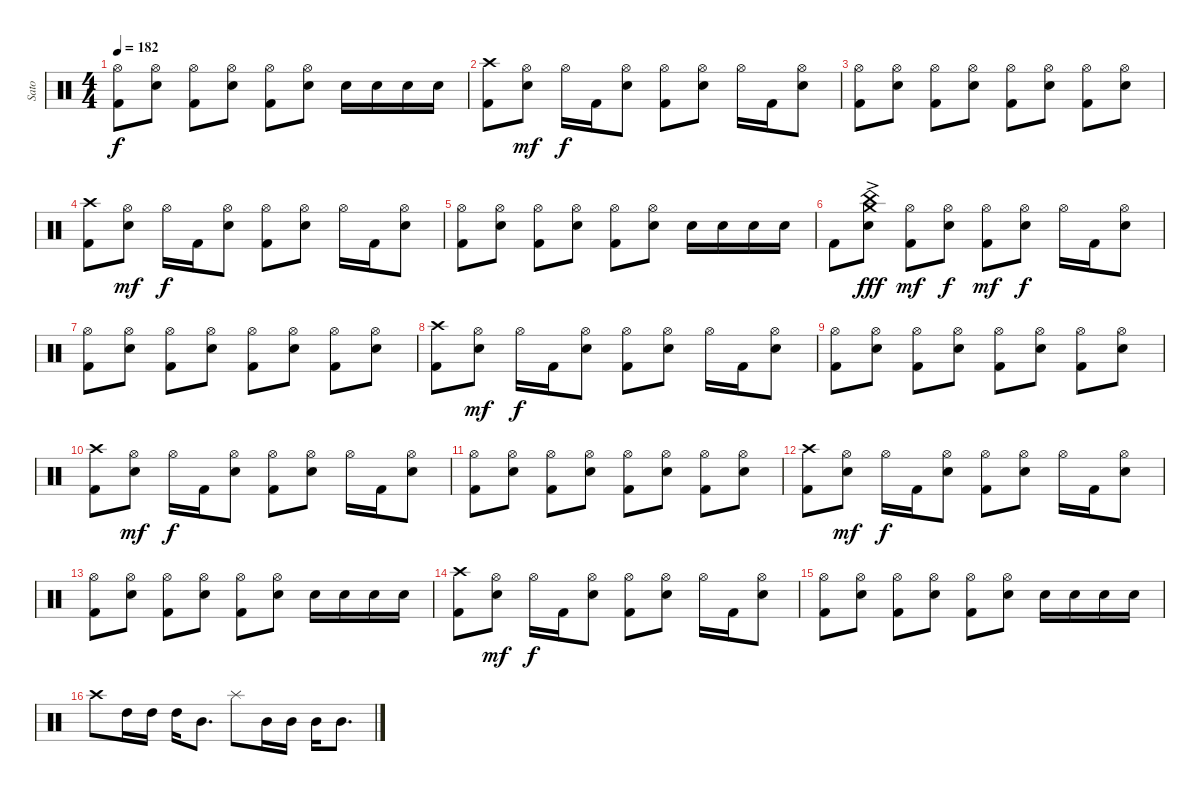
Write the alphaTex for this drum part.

\track ("Sato" "Sato") {instrument percussion}
\staff {score}
\articulation defaults
\ts (4 4)
\tempo 182
\clef neutral
\ks c
("Hi-Hat (open)" "Kick (hit) 2").8{dy f} ("Hi-Hat (open)" "Electric Snare (hit)").8 ("Hi-Hat (open)" "Kick (hit) 2").8 ("Hi-Hat (open)" "Electric Snare (hit)").8 ("Hi-Hat (open)" "Kick (hit) 2").8 ("Hi-Hat (open)" "Electric Snare (hit)").8 "Electric Snare (hit)".16 "Electric Snare (hit)".16 "Electric Snare (hit)".16 "Electric Snare (hit)".16 |
("Crash high (hit)" "Kick (hit) 2").8 ("Hi-Hat (open)" "Electric Snare (hit)").8{dy mf} "Hi-Hat (open)".16{dy f} "Kick (hit) 2".16 ("Hi-Hat (open)" "Electric Snare (hit)").8 ("Hi-Hat (open)" "Kick (hit) 2").8 ("Hi-Hat (open)" "Electric Snare (hit)").8 "Hi-Hat (open)".16 "Kick (hit) 2".16 ("Hi-Hat (open)" "Electric Snare (hit)").8 |
("Hi-Hat (open)" "Kick (hit) 2").8 ("Hi-Hat (open)" "Electric Snare (hit)").8 ("Hi-Hat (open)" "Kick (hit) 2").8 ("Hi-Hat (open)" "Electric Snare (hit)").8 ("Hi-Hat (open)" "Kick (hit) 2").8 ("Hi-Hat (open)" "Electric Snare (hit)").8 ("Hi-Hat (open)" "Kick (hit) 2").8 ("Hi-Hat (open)" "Electric Snare (hit)").8 |
("Crash high (hit)" "Kick (hit) 2").8 ("Hi-Hat (open)" "Electric Snare (hit)").8{dy mf} "Hi-Hat (open)".16{dy f} "Kick (hit) 2".16 ("Hi-Hat (open)" "Electric Snare (hit)").8 ("Hi-Hat (open)" "Kick (hit) 2").8 ("Hi-Hat (open)" "Electric Snare (hit)").8 "Hi-Hat (open)".16 "Kick (hit) 2".16 ("Hi-Hat (open)" "Electric Snare (hit)").8 |
("Hi-Hat (open)" "Kick (hit) 2").8 ("Hi-Hat (open)" "Electric Snare (hit)").8 ("Hi-Hat (open)" "Kick (hit) 2").8 ("Hi-Hat (open)" "Electric Snare (hit)").8 ("Hi-Hat (open)" "Kick (hit) 2").8 ("Hi-Hat (open)" "Electric Snare (hit)").8 "Electric Snare (hit)".16 "Electric Snare (hit)".16 "Electric Snare (hit)".16 "Electric Snare (hit)".16 |
"Kick (hit) 2".8 ("China (hit)" "Crash medium (hit)" "Electric Snare (hit)"{ac}).8{dy fff} ("Hi-Hat (open)" "Kick (hit) 2").8{dy mf} ("Hi-Hat (open)" "Electric Snare (hit)").8{dy f} ("Hi-Hat (open)" "Kick (hit) 2").8{dy mf} ("Hi-Hat (open)" "Electric Snare (hit)").8{dy f} "Hi-Hat (open)".16 "Kick (hit) 2".16 ("Hi-Hat (open)" "Electric Snare (hit)").8 |
("Hi-Hat (open)" "Kick (hit) 2").8 ("Hi-Hat (open)" "Electric Snare (hit)").8 ("Hi-Hat (open)" "Kick (hit) 2").8 ("Hi-Hat (open)" "Electric Snare (hit)").8 ("Hi-Hat (open)" "Kick (hit) 2").8 ("Hi-Hat (open)" "Electric Snare (hit)").8 ("Hi-Hat (open)" "Kick (hit) 2").8 ("Hi-Hat (open)" "Electric Snare (hit)").8 |
("Crash high (hit)" "Kick (hit) 2").8 ("Hi-Hat (open)" "Electric Snare (hit)").8{dy mf} "Hi-Hat (open)".16{dy f} "Kick (hit) 2".16 ("Hi-Hat (open)" "Electric Snare (hit)").8 ("Hi-Hat (open)" "Kick (hit) 2").8 ("Hi-Hat (open)" "Electric Snare (hit)").8 "Hi-Hat (open)".16 "Kick (hit) 2".16 ("Hi-Hat (open)" "Electric Snare (hit)").8 |
("Hi-Hat (open)" "Kick (hit) 2").8 ("Hi-Hat (open)" "Electric Snare (hit)").8 ("Hi-Hat (open)" "Kick (hit) 2").8 ("Hi-Hat (open)" "Electric Snare (hit)").8 ("Hi-Hat (open)" "Kick (hit) 2").8 ("Hi-Hat (open)" "Electric Snare (hit)").8 ("Hi-Hat (open)" "Kick (hit) 2").8 ("Hi-Hat (open)" "Electric Snare (hit)").8 |
("Crash high (hit)" "Kick (hit) 2").8 ("Hi-Hat (open)" "Electric Snare (hit)").8{dy mf} "Hi-Hat (open)".16{dy f} "Kick (hit) 2".16 ("Hi-Hat (open)" "Electric Snare (hit)").8 ("Hi-Hat (open)" "Kick (hit) 2").8 ("Hi-Hat (open)" "Electric Snare (hit)").8 "Hi-Hat (open)".16 "Kick (hit) 2".16 ("Hi-Hat (open)" "Electric Snare (hit)").8 |
("Hi-Hat (open)" "Kick (hit) 2").8 ("Hi-Hat (open)" "Electric Snare (hit)").8 ("Hi-Hat (open)" "Kick (hit) 2").8 ("Hi-Hat (open)" "Electric Snare (hit)").8 ("Hi-Hat (open)" "Kick (hit) 2").8 ("Hi-Hat (open)" "Electric Snare (hit)").8 ("Hi-Hat (open)" "Kick (hit) 2").8 ("Hi-Hat (open)" "Electric Snare (hit)").8 |
("Crash high (hit)" "Kick (hit) 2").8 ("Hi-Hat (open)" "Electric Snare (hit)").8{dy mf} "Hi-Hat (open)".16{dy f} "Kick (hit) 2".16 ("Hi-Hat (open)" "Electric Snare (hit)").8 ("Hi-Hat (open)" "Kick (hit) 2").8 ("Hi-Hat (open)" "Electric Snare (hit)").8 "Hi-Hat (open)".16 "Kick (hit) 2".16 ("Hi-Hat (open)" "Electric Snare (hit)").8 |
("Hi-Hat (open)" "Kick (hit) 2").8 ("Hi-Hat (open)" "Electric Snare (hit)").8 ("Hi-Hat (open)" "Kick (hit) 2").8 ("Hi-Hat (open)" "Electric Snare (hit)").8 ("Hi-Hat (open)" "Kick (hit) 2").8 ("Hi-Hat (open)" "Electric Snare (hit)").8 "Electric Snare (hit)".16 "Electric Snare (hit)".16 "Electric Snare (hit)".16 "Electric Snare (hit)".16 |
("Crash high (hit)" "Kick (hit) 2").8 ("Hi-Hat (open)" "Electric Snare (hit)").8{dy mf} "Hi-Hat (open)".16{dy f} "Kick (hit) 2".16 ("Hi-Hat (open)" "Electric Snare (hit)").8 ("Hi-Hat (open)" "Kick (hit) 2").8 ("Hi-Hat (open)" "Electric Snare (hit)").8 "Hi-Hat (open)".16 "Kick (hit) 2".16 ("Hi-Hat (open)" "Electric Snare (hit)").8 |
("Hi-Hat (open)" "Kick (hit) 2").8 ("Hi-Hat (open)" "Electric Snare (hit)").8 ("Hi-Hat (open)" "Kick (hit) 2").8 ("Hi-Hat (open)" "Electric Snare (hit)").8 ("Hi-Hat (open)" "Kick (hit) 2").8 ("Hi-Hat (open)" "Electric Snare (hit)").8 "Electric Snare (hit)".16 "Electric Snare (hit)".16 "Electric Snare (hit)".16 "Electric Snare (hit)".16 |
"Crash high (hit)".8 "High Tom (hit)".16 "High Tom (hit)".16 "High Tom (hit)".16 "Mid Tom (hit)".8{d} "Splash (hit)".8 "Mid Tom (hit)".16 "Mid Tom (hit)".16 "Mid Tom (hit)".16 "Mid Tom (hit)".8{d}
